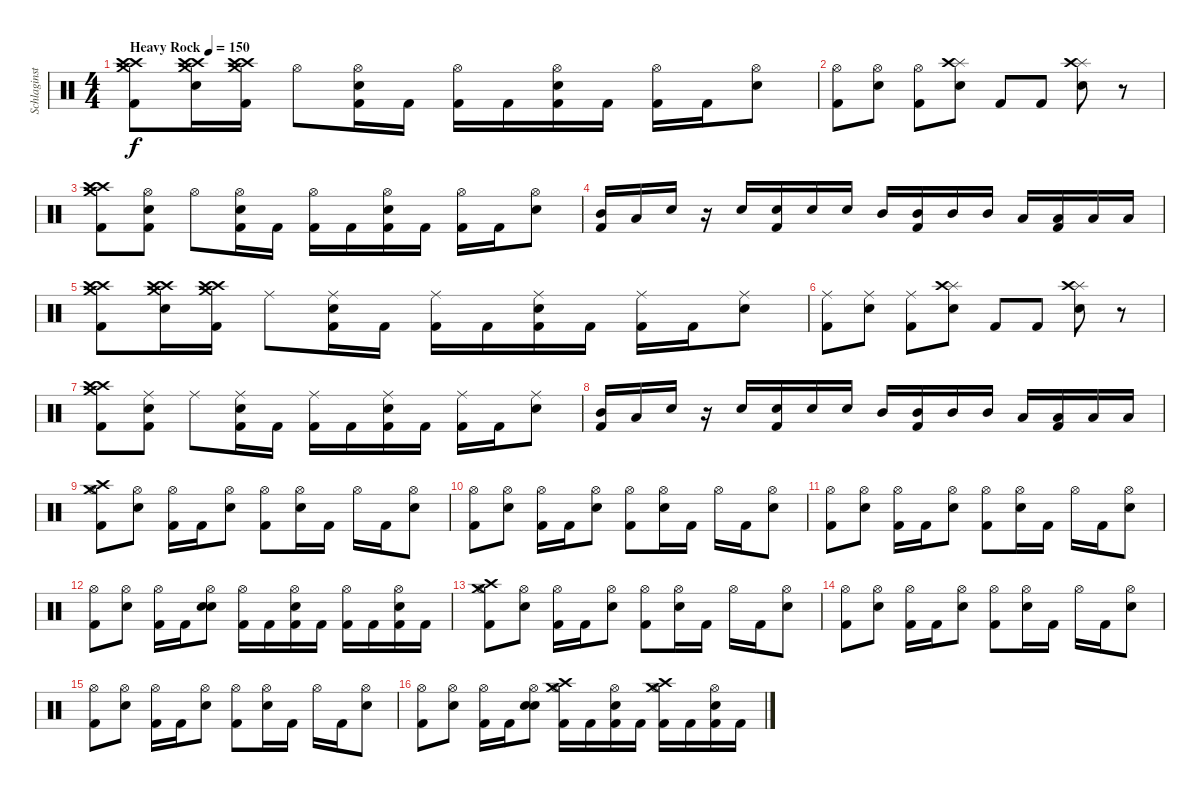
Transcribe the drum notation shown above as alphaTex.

\track ("Schlaginstrumente - Auswahl" "Schlaginst") {instrument percussion}
\staff {score}
\articulation defaults
\ts (4 4)
\tempo (150 "Heavy Rock")
\clef neutral
\ks c
("Crash high (hit)" "Crash high (hit)" "Crash medium (hit)" "Kick (hit) 2").8{dy f} ("Crash high (hit)" "Crash high (hit)" "Crash medium (hit)" "Electric Snare (hit)").16 ("Crash high (hit)" "Crash high (hit)" "Crash medium (hit)" "Kick (hit) 2").16 "Hi-Hat (open)".8 ("Electric Snare (hit)" "Hi-Hat (open)" "Kick (hit) 2").16 "Kick (hit) 2".16 ("Hi-Hat (open)" "Kick (hit) 2").16 "Kick (hit) 2".16 ("Electric Snare (hit)" "Hi-Hat (open)" "Kick (hit) 2").16 "Kick (hit) 2".16 ("Hi-Hat (open)" "Kick (hit) 2").16 "Kick (hit) 2".16 ("Electric Snare (hit)" "Hi-Hat (open)").8 |
("Hi-Hat (open)" "Kick (hit) 2").8 ("Electric Snare (hit)" "Hi-Hat (open)").8 ("Hi-Hat (open)" "Kick (hit) 2").8 ("Splash (hit)" "Crash high (hit)" "Electric Snare (hit)").8 "Kick (hit) 2".8 "Kick (hit) 2".8 ("Splash (hit)" "Crash high (hit)" "Electric Snare (hit)").8 r.8 |
("Crash high (hit)" "Crash high (hit)" "Crash medium (hit)" "Kick (hit) 2").8 ("Electric Snare (hit)" "Hi-Hat (open)" "Kick (hit) 2").8 "Hi-Hat (open)".8 ("Electric Snare (hit)" "Hi-Hat (open)" "Kick (hit) 2").16 "Kick (hit) 2".16 ("Hi-Hat (open)" "Kick (hit) 2").16 "Kick (hit) 2".16 ("Electric Snare (hit)" "Hi-Hat (open)" "Kick (hit) 2").16 "Kick (hit) 2".16 ("Hi-Hat (open)" "Kick (hit) 2").16 "Kick (hit) 2".16 ("Electric Snare (hit)" "Hi-Hat (open)").8 |
("Mid Tom (hit)" "Kick (hit) 2").16 "Low Tom (hit)".16 "Electric Snare (hit)".16 r.16 "Electric Snare (hit)".16 ("Electric Snare (hit)" "Kick (hit) 2").16 "Electric Snare (hit)".16 "Electric Snare (hit)".16 "Mid Tom (hit)".16 ("Mid Tom (hit)" "Kick (hit) 2").16 "Mid Tom (hit)".16 "Mid Tom (hit)".16 "Low Tom (hit)".16 ("Low Tom (hit)" "Kick (hit) 2").16 "Low Tom (hit)".16 "Low Tom (hit)".16 |
("Crash high (hit)" "Crash high (hit)" "Crash medium (hit)" "Kick (hit) 2").8 ("Crash high (hit)" "Crash high (hit)" "Crash medium (hit)" "Electric Snare (hit)").16 ("Crash high (hit)" "Crash high (hit)" "Crash medium (hit)" "Kick (hit) 2").16 "Ride (middle)".8 ("Electric Snare (hit)" "Ride (middle)" "Kick (hit) 2").16 "Kick (hit) 2".16 ("Ride (middle)" "Kick (hit) 2").16 "Kick (hit) 2".16 ("Electric Snare (hit)" "Ride (middle)" "Kick (hit) 2").16 "Kick (hit) 2".16 ("Ride (middle)" "Kick (hit) 2").16 "Kick (hit) 2".16 ("Electric Snare (hit)" "Ride (middle)").8 |
("Ride (middle)" "Kick (hit) 2").8 ("Electric Snare (hit)" "Ride (middle)").8 ("Ride (middle)" "Kick (hit) 2").8 ("Splash (hit)" "Crash high (hit)" "Electric Snare (hit)").8 "Kick (hit) 2".8 "Kick (hit) 2".8 ("Splash (hit)" "Crash high (hit)" "Electric Snare (hit)").8 r.8 |
("Crash high (hit)" "Crash high (hit)" "Crash medium (hit)" "Kick (hit) 2").8 ("Electric Snare (hit)" "Ride (middle)" "Kick (hit) 2").8 "Ride (middle)".8 ("Electric Snare (hit)" "Ride (middle)" "Kick (hit) 2").16 "Kick (hit) 2".16 ("Ride (middle)" "Kick (hit) 2").16 "Kick (hit) 2".16 ("Electric Snare (hit)" "Ride (middle)" "Kick (hit) 2").16 "Kick (hit) 2".16 ("Ride (middle)" "Kick (hit) 2").16 "Kick (hit) 2".16 ("Electric Snare (hit)" "Ride (middle)").8 |
("Mid Tom (hit)" "Kick (hit) 2").16 "Low Tom (hit)".16 "Electric Snare (hit)".16 r.16 "Electric Snare (hit)".16 ("Electric Snare (hit)" "Kick (hit) 2").16 "Electric Snare (hit)".16 "Electric Snare (hit)".16 "Mid Tom (hit)".16 ("Mid Tom (hit)" "Kick (hit) 2").16 "Mid Tom (hit)".16 "Mid Tom (hit)".16 "Low Tom (hit)".16 ("Low Tom (hit)" "Kick (hit) 2").16 "Low Tom (hit)".16 "Low Tom (hit)".16 |
("Crash high (hit)" "Crash medium (hit)" "Hi-Hat (open)" "Kick (hit) 2").8 ("Electric Snare (hit)" "Hi-Hat (open)").8 ("Hi-Hat (open)" "Kick (hit) 2").16 "Kick (hit) 2".16 ("Hi-Hat (open)" "Electric Snare (hit)").8 ("Hi-Hat (open)" "Kick (hit) 2").8 ("Hi-Hat (open)" "Electric Snare (hit)").16 "Kick (hit) 2".16 "Hi-Hat (open)".16 "Kick (hit) 2".16 ("Hi-Hat (open)" "Electric Snare (hit)").8 |
("Hi-Hat (open)" "Kick (hit) 2").8 ("Electric Snare (hit)" "Hi-Hat (open)").8 ("Hi-Hat (open)" "Kick (hit) 2").16 "Kick (hit) 2".16 ("Hi-Hat (open)" "Electric Snare (hit)").8 ("Hi-Hat (open)" "Kick (hit) 2").8 ("Hi-Hat (open)" "Electric Snare (hit)").16 "Kick (hit) 2".16 "Hi-Hat (open)".16 "Kick (hit) 2".16 ("Hi-Hat (open)" "Electric Snare (hit)").8 |
("Hi-Hat (open)" "Kick (hit) 2").8 ("Electric Snare (hit)" "Hi-Hat (open)").8 ("Hi-Hat (open)" "Kick (hit) 2").16 "Kick (hit) 2".16 ("Hi-Hat (open)" "Electric Snare (hit)").8 ("Hi-Hat (open)" "Kick (hit) 2").8 ("Hi-Hat (open)" "Electric Snare (hit)").16 "Kick (hit) 2".16 "Hi-Hat (open)".16 "Kick (hit) 2".16 ("Hi-Hat (open)" "Electric Snare (hit)").8 |
("Hi-Hat (open)" "Kick (hit) 2").8 ("Electric Snare (hit)" "Hi-Hat (open)").8 ("Hi-Hat (open)" "Kick (hit) 2").16 "Kick (hit) 2".16 ("Electric Snare (hit)" "Hi-Hat (open)" "Electric Snare (hit)").8 ("Hi-Hat (open)" "Kick (hit) 2").16 "Kick (hit) 2".16 ("Electric Snare (hit)" "Hi-Hat (open)" "Kick (hit) 2").16 "Kick (hit) 2".16 ("Hi-Hat (open)" "Kick (hit) 2").16 "Kick (hit) 2".16 ("Electric Snare (hit)" "Hi-Hat (open)" "Kick (hit) 2").16 "Kick (hit) 2".16 |
("Crash high (hit)" "Crash medium (hit)" "Hi-Hat (open)" "Kick (hit) 2").8 ("Electric Snare (hit)" "Hi-Hat (open)").8 ("Hi-Hat (open)" "Kick (hit) 2").16 "Kick (hit) 2".16 ("Hi-Hat (open)" "Electric Snare (hit)").8 ("Hi-Hat (open)" "Kick (hit) 2").8 ("Hi-Hat (open)" "Electric Snare (hit)").16 "Kick (hit) 2".16 "Hi-Hat (open)".16 "Kick (hit) 2".16 ("Hi-Hat (open)" "Electric Snare (hit)").8 |
("Hi-Hat (open)" "Kick (hit) 2").8 ("Electric Snare (hit)" "Hi-Hat (open)").8 ("Hi-Hat (open)" "Kick (hit) 2").16 "Kick (hit) 2".16 ("Hi-Hat (open)" "Electric Snare (hit)").8 ("Hi-Hat (open)" "Kick (hit) 2").8 ("Hi-Hat (open)" "Electric Snare (hit)").16 "Kick (hit) 2".16 "Hi-Hat (open)".16 "Kick (hit) 2".16 ("Hi-Hat (open)" "Electric Snare (hit)").8 |
("Hi-Hat (open)" "Kick (hit) 2").8 ("Electric Snare (hit)" "Hi-Hat (open)").8 ("Hi-Hat (open)" "Kick (hit) 2").16 "Kick (hit) 2".16 ("Hi-Hat (open)" "Electric Snare (hit)").8 ("Hi-Hat (open)" "Kick (hit) 2").8 ("Hi-Hat (open)" "Electric Snare (hit)").16 "Kick (hit) 2".16 "Hi-Hat (open)".16 "Kick (hit) 2".16 ("Hi-Hat (open)" "Electric Snare (hit)").8 |
("Hi-Hat (open)" "Kick (hit) 2").8 ("Electric Snare (hit)" "Hi-Hat (open)").8 ("Hi-Hat (open)" "Kick (hit) 2").16 "Kick (hit) 2".16 ("Electric Snare (hit)" "Hi-Hat (open)" "Electric Snare (hit)").8 ("Crash high (hit)" "Crash medium (hit)" "Hi-Hat (open)" "Kick (hit) 2").16 "Kick (hit) 2".16 ("Electric Snare (hit)" "Hi-Hat (open)" "Kick (hit) 2").16 "Kick (hit) 2".16 ("Crash high (hit)" "Crash medium (hit)" "Hi-Hat (open)" "Kick (hit) 2").16 "Kick (hit) 2".16 ("Electric Snare (hit)" "Hi-Hat (open)" "Kick (hit) 2").16 "Kick (hit) 2".16
